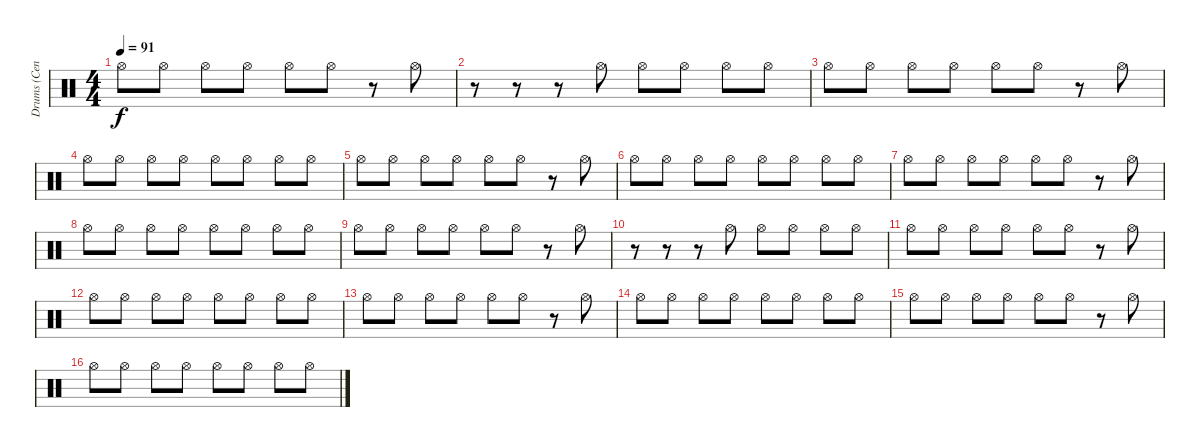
\track ("Drums (Cenk)" "Drums (Cen") {instrument percussion}
\staff {score}
\articulation defaults
\ts (4 4)
\tempo 91
\clef neutral
\ks c "Hi-Hat (open)".8{dy f} "Hi-Hat (open)".8 "Hi-Hat (open)".8 "Hi-Hat (open)".8 "Hi-Hat (open)".8 "Hi-Hat (open)".8
r.8 "Hi-Hat (open)".8 |
r.8 r.8 r.8 "Hi-Hat (open)".8 "Hi-Hat (open)".8 "Hi-Hat (open)".8 "Hi-Hat (open)".8 "Hi-Hat (open)".8 |
"Hi-Hat (open)".8 "Hi-Hat (open)".8 "Hi-Hat (open)".8 "Hi-Hat (open)".8 "Hi-Hat (open)".8 "Hi-Hat (open)".8 r.8 "Hi-Hat (open)".8 |
"Hi-Hat (open)".8 "Hi-Hat (open)".8 "Hi-Hat (open)".8 "Hi-Hat (open)".8 "Hi-Hat (open)".8 "Hi-Hat (open)".8 "Hi-Hat (open)".8 "Hi-Hat (open)".8 |
"Hi-Hat (open)".8 "Hi-Hat (open)".8 "Hi-Hat (open)".8 "Hi-Hat (open)".8 "Hi-Hat (open)".8 "Hi-Hat (open)".8 r.8 "Hi-Hat (open)".8 |
"Hi-Hat (open)".8 "Hi-Hat (open)".8 "Hi-Hat (open)".8 "Hi-Hat (open)".8 "Hi-Hat (open)".8 "Hi-Hat (open)".8 "Hi-Hat (open)".8 "Hi-Hat (open)".8 |
"Hi-Hat (open)".8 "Hi-Hat (open)".8 "Hi-Hat (open)".8 "Hi-Hat (open)".8 "Hi-Hat (open)".8 "Hi-Hat (open)".8 r.8 "Hi-Hat (open)".8 |
"Hi-Hat (open)".8 "Hi-Hat (open)".8 "Hi-Hat (open)".8 "Hi-Hat (open)".8 "Hi-Hat (open)".8 "Hi-Hat (open)".8 "Hi-Hat (open)".8 "Hi-Hat (open)".8 |
"Hi-Hat (open)".8 "Hi-Hat (open)".8 "Hi-Hat (open)".8 "Hi-Hat (open)".8 "Hi-Hat (open)".8 "Hi-Hat (open)".8 r.8 "Hi-Hat (open)".8 |
r.8 r.8 r.8 "Hi-Hat (open)".8 "Hi-Hat (open)".8 "Hi-Hat (open)".8 "Hi-Hat (open)".8 "Hi-Hat (open)".8 |
"Hi-Hat (open)".8 "Hi-Hat (open)".8 "Hi-Hat (open)".8 "Hi-Hat (open)".8 "Hi-Hat (open)".8 "Hi-Hat (open)".8 r.8 "Hi-Hat (open)".8 |
"Hi-Hat (open)".8 "Hi-Hat (open)".8 "Hi-Hat (open)".8 "Hi-Hat (open)".8 "Hi-Hat (open)".8 "Hi-Hat (open)".8 "Hi-Hat (open)".8 "Hi-Hat (open)".8 |
"Hi-Hat (open)".8 "Hi-Hat (open)".8 "Hi-Hat (open)".8 "Hi-Hat (open)".8 "Hi-Hat (open)".8 "Hi-Hat (open)".8 r.8 "Hi-Hat (open)".8 |
"Hi-Hat (open)".8 "Hi-Hat (open)".8 "Hi-Hat (open)".8 "Hi-Hat (open)".8 "Hi-Hat (open)".8 "Hi-Hat (open)".8 "Hi-Hat (open)".8 "Hi-Hat (open)".8 |
"Hi-Hat (open)".8 "Hi-Hat (open)".8 "Hi-Hat (open)".8 "Hi-Hat (open)".8 "Hi-Hat (open)".8 "Hi-Hat (open)".8 r.8 "Hi-Hat (open)".8 |
"Hi-Hat (open)".8 "Hi-Hat (open)".8 "Hi-Hat (open)".8 "Hi-Hat (open)".8 "Hi-Hat (open)".8 "Hi-Hat (open)".8 "Hi-Hat (open)".8 "Hi-Hat (open)".8
